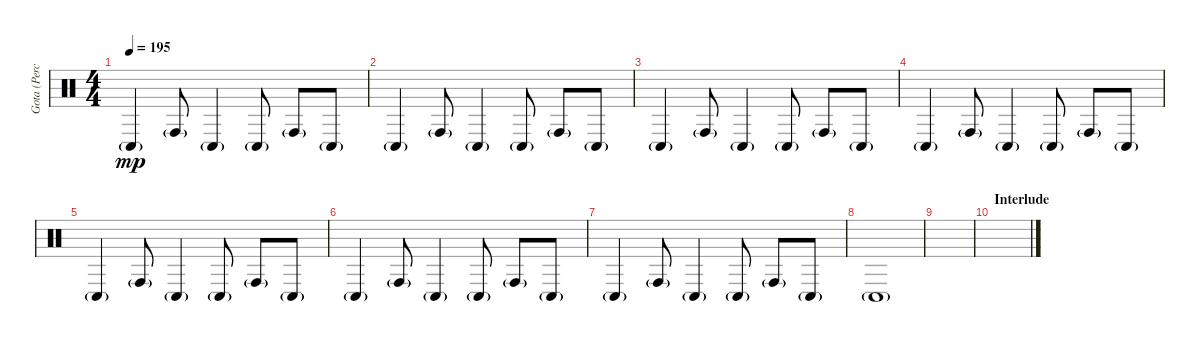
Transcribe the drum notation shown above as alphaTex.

\track ("Gota (Percussion)" "Gota (Perc") {instrument percussion}
\staff {score}
\articulation defaults
\ts (4 4)
\tempo 195
\clef neutral
\ks c "Conga low (hit)"{g}.4{dy mp} "Conga high (hit)"{g}.8 "Conga low (hit)"{g}.4 "Conga low (hit)"{g}.8 "Conga high (hit)"{g}.8 "Conga low (hit)"{g}.8
|
"Conga low (hit)"{g}.4 "Conga high (hit)"{g}.8 "Conga low (hit)"{g}.4 "Conga low (hit)"{g}.8 "Conga high (hit)"{g}.8 "Conga low (hit)"{g}.8 |
"Conga low (hit)"{g}.4 "Conga high (hit)"{g}.8 "Conga low (hit)"{g}.4 "Conga low (hit)"{g}.8 "Conga high (hit)"{g}.8 "Conga low (hit)"{g}.8 |
"Conga low (hit)"{g}.4 "Conga high (hit)"{g}.8 "Conga low (hit)"{g}.4 "Conga low (hit)"{g}.8 "Conga high (hit)"{g}.8 "Conga low (hit)"{g}.8 |
"Conga low (hit)"{g}.4 "Conga high (hit)"{g}.8 "Conga low (hit)"{g}.4 "Conga low (hit)"{g}.8 "Conga high (hit)"{g}.8 "Conga low (hit)"{g}.8 |
"Conga low (hit)"{g}.4 "Conga high (hit)"{g}.8 "Conga low (hit)"{g}.4 "Conga low (hit)"{g}.8 "Conga high (hit)"{g}.8 "Conga low (hit)"{g}.8 |
"Conga low (hit)"{g}.4 "Conga high (hit)"{g}.8 "Conga low (hit)"{g}.4 "Conga low (hit)"{g}.8 "Conga high (hit)"{g}.8 "Conga low (hit)"{g}.8 |
"Conga low (hit)"{g}.1 |
|
\section ("" "Interlude")
